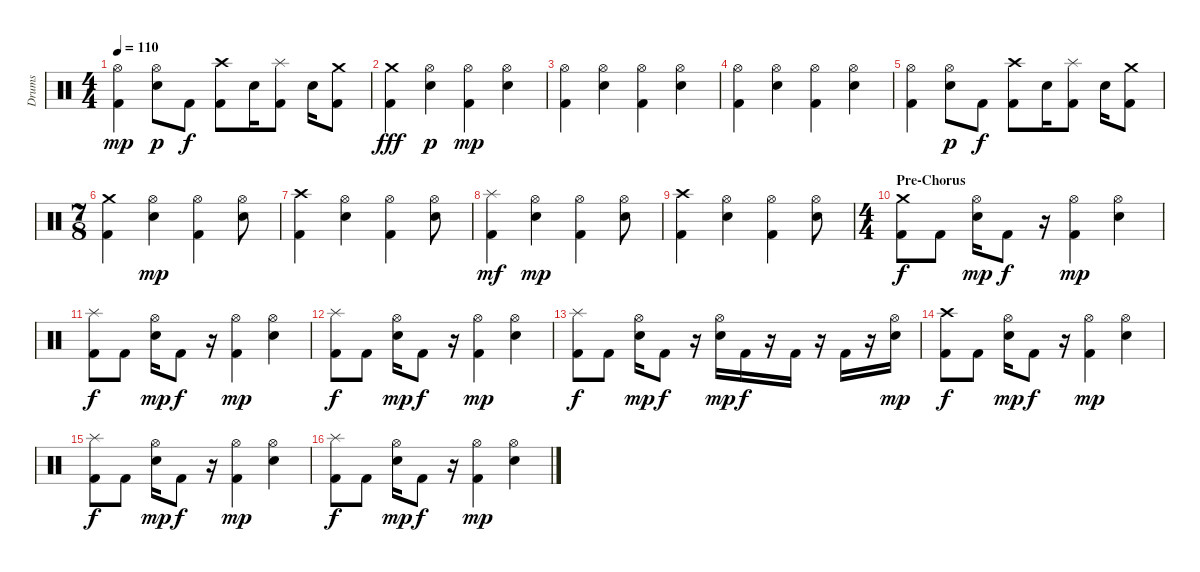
\track ("Drums" "Drums") {instrument percussion}
\staff {score}
\articulation defaults
\ts (4 4)
\tempo 110
\clef neutral
\ks c
("Hi-Hat (open)" "Kick (hit) 2").4{dy mp} ("Hi-Hat (open)" "Snare (hit) 2").8{dy p} "Kick (hit) 2".8{dy f} ("Crash high (hit)" "Kick (hit) 2").8 "Snare (hit) 2".16 ("Splash (hit)" "Kick (hit) 2").8 "Snare (hit) 2".16 ("Crash medium (hit)" "Kick (hit) 2").8 |
("Crash medium (hit)" "Kick (hit) 2").4{dy fff} ("Hi-Hat (open)" "Snare (hit) 2").4{dy p} ("Hi-Hat (open)" "Kick (hit) 2").4{dy mp} ("Hi-Hat (open)" "Snare (hit) 2").4 |
("Hi-Hat (open)" "Kick (hit) 2").4 ("Hi-Hat (open)" "Snare (hit) 2").4 ("Hi-Hat (open)" "Kick (hit) 2").4 ("Hi-Hat (open)" "Snare (hit) 2").4 |
("Hi-Hat (open)" "Kick (hit) 2").4 ("Hi-Hat (open)" "Snare (hit) 2").4 ("Hi-Hat (open)" "Kick (hit) 2").4 ("Hi-Hat (open)" "Snare (hit) 2").4 |
("Hi-Hat (open)" "Kick (hit) 2").4 ("Hi-Hat (open)" "Snare (hit) 2").8{dy p} "Kick (hit) 2".8{dy f} ("Crash high (hit)" "Kick (hit) 2").8 "Snare (hit) 2".16 ("Splash (hit)" "Kick (hit) 2").8 "Snare (hit) 2".16 ("Crash medium (hit)" "Kick (hit) 2").8 |
\ts (7 8)
("Crash medium (hit)" "Kick (hit) 2").4 ("Hi-Hat (open)" "Snare (hit) 2").4{dy mp} ("Hi-Hat (open)" "Kick (hit) 2").4 ("Hi-Hat (open)" "Snare (hit) 2").8 |
("Crash high (hit)" "Kick (hit) 2").4 ("Hi-Hat (open)" "Snare (hit) 2").4 ("Hi-Hat (open)" "Kick (hit) 2").4 ("Hi-Hat (open)" "Snare (hit) 2").8 |
("Splash (hit)" "Kick (hit) 2").4{dy mf} ("Hi-Hat (open)" "Snare (hit) 2").4{dy mp} ("Hi-Hat (open)" "Kick (hit) 2").4 ("Hi-Hat (open)" "Snare (hit) 2").8 |
("Crash high (hit)" "Kick (hit) 2").4 ("Hi-Hat (open)" "Snare (hit) 2").4 ("Hi-Hat (open)" "Kick (hit) 2").4 ("Hi-Hat (open)" "Snare (hit) 2").8 |
\ts (4 4)
\section ("" "Pre-Chorus")
("Crash medium (hit)" "Kick (hit) 2").8{dy f} "Kick (hit) 2".8 ("Hi-Hat (open)" "Snare (hit) 2").16{dy mp} "Kick (hit) 2".8{dy f} r.16 ("Hi-Hat (open)" "Kick (hit) 2").4{dy mp} ("Hi-Hat (open)" "Snare (hit) 2").4 |
("Splash (hit)" "Kick (hit) 2").8{dy f} "Kick (hit) 2".8 ("Hi-Hat (open)" "Snare (hit) 2").16{dy mp} "Kick (hit) 2".8{dy f} r.16 ("Hi-Hat (open)" "Kick (hit) 2").4{dy mp} ("Hi-Hat (open)" "Snare (hit) 2").4 |
("Splash (hit)" "Kick (hit) 2").8{dy f} "Kick (hit) 2".8 ("Hi-Hat (open)" "Snare (hit) 2").16{dy mp} "Kick (hit) 2".8{dy f} r.16 ("Hi-Hat (open)" "Kick (hit) 2").4{dy mp} ("Hi-Hat (open)" "Snare (hit) 2").4 |
("Splash (hit)" "Kick (hit) 2").8{dy f} "Kick (hit) 2".8 ("Hi-Hat (open)" "Snare (hit) 2").16{dy mp} "Kick (hit) 2".8{dy f} r.16 ("Hi-Hat (open)" "Snare (hit) 2").16{dy mp} "Kick (hit) 2".16{dy f} r.16 "Kick (hit) 2".16 r.16 "Kick (hit) 2".16 r.16 ("Hi-Hat (open)" "Snare (hit) 2").16{dy mp} |
("Crash high (hit)" "Kick (hit) 2").8{dy f} "Kick (hit) 2".8 ("Hi-Hat (open)" "Snare (hit) 2").16{dy mp} "Kick (hit) 2".8{dy f} r.16 ("Hi-Hat (open)" "Kick (hit) 2").4{dy mp} ("Hi-Hat (open)" "Snare (hit) 2").4 |
("Splash (hit)" "Kick (hit) 2").8{dy f} "Kick (hit) 2".8 ("Hi-Hat (open)" "Snare (hit) 2").16{dy mp} "Kick (hit) 2".8{dy f} r.16 ("Hi-Hat (open)" "Kick (hit) 2").4{dy mp} ("Hi-Hat (open)" "Snare (hit) 2").4 |
("Splash (hit)" "Kick (hit) 2").8{dy f} "Kick (hit) 2".8 ("Hi-Hat (open)" "Snare (hit) 2").16{dy mp} "Kick (hit) 2".8{dy f} r.16 ("Hi-Hat (open)" "Kick (hit) 2").4{dy mp} ("Hi-Hat (open)" "Snare (hit) 2").4
